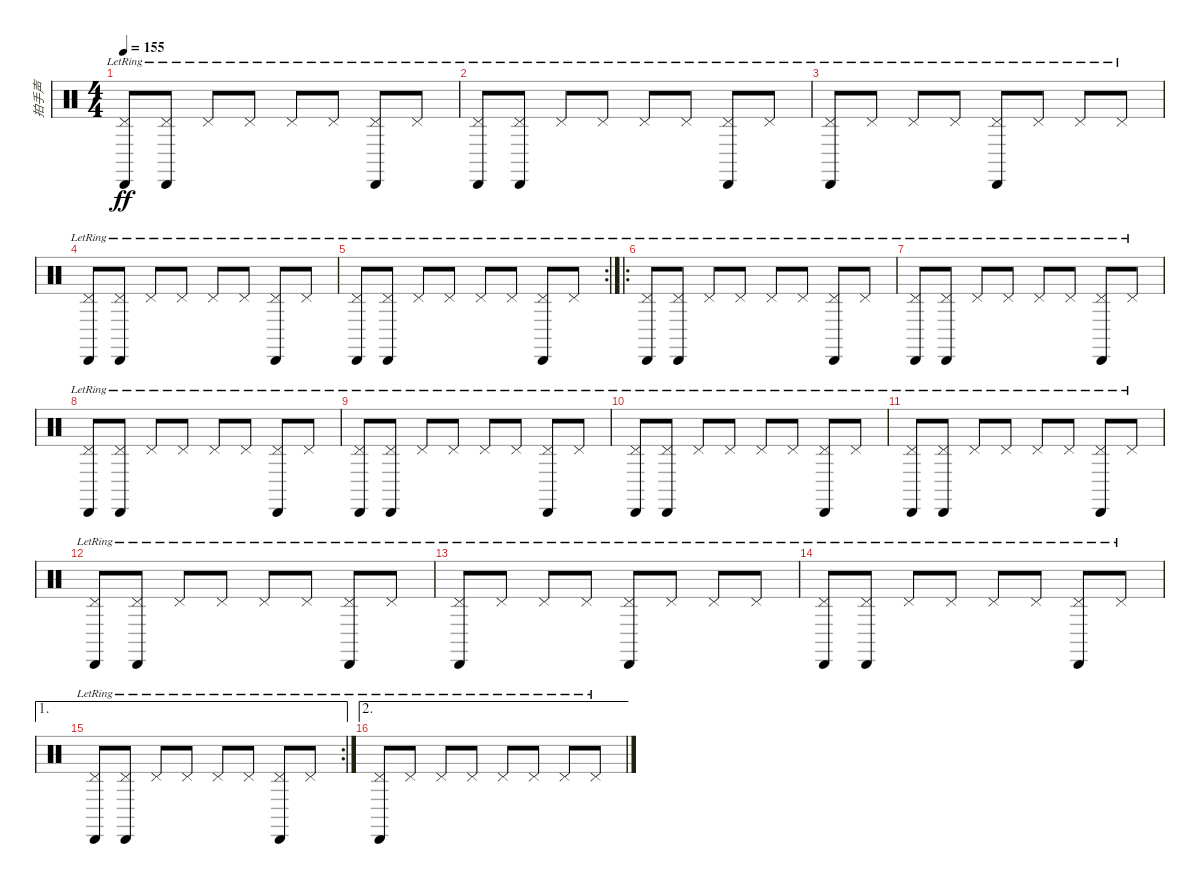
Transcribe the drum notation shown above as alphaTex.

\track ("拍手声" "拍手声") {instrument percussion}
\staff {score}
\articulation defaults
\ts (4 4)
\tempo 155
\clef neutral
\ks c
("Pedal Hi-Hat (hit)"{lr} "Cabasa (hit)"{lr}).8{dy ff} ("Pedal Hi-Hat (hit)"{lr} "Cabasa (hit)"{lr}).8 "Pedal Hi-Hat (hit)"{lr}.8 "Pedal Hi-Hat (hit)"{lr}.8 "Pedal Hi-Hat (hit)"{lr}.8 "Pedal Hi-Hat (hit)"{lr}.8 ("Pedal Hi-Hat (hit)"{lr} "Cabasa (hit)"{lr}).8 "Pedal Hi-Hat (hit)"{lr}.8 |
("Pedal Hi-Hat (hit)"{lr} "Cabasa (hit)"{lr}).8 ("Pedal Hi-Hat (hit)"{lr} "Cabasa (hit)"{lr}).8 "Pedal Hi-Hat (hit)"{lr}.8 "Pedal Hi-Hat (hit)"{lr}.8 "Pedal Hi-Hat (hit)"{lr}.8 "Pedal Hi-Hat (hit)"{lr}.8 ("Pedal Hi-Hat (hit)"{lr} "Cabasa (hit)"{lr}).8 "Pedal Hi-Hat (hit)"{lr}.8 |
("Pedal Hi-Hat (hit)"{lr} "Cabasa (hit)"{lr}).8 "Pedal Hi-Hat (hit)"{lr}.8 "Pedal Hi-Hat (hit)"{lr}.8 "Pedal Hi-Hat (hit)"{lr}.8 ("Pedal Hi-Hat (hit)"{lr} "Cabasa (hit)"{lr}).8 "Pedal Hi-Hat (hit)"{lr}.8 "Pedal Hi-Hat (hit)"{lr}.8 "Pedal Hi-Hat (hit)"{lr}.8 |
("Pedal Hi-Hat (hit)"{lr} "Cabasa (hit)"{lr}).8 ("Pedal Hi-Hat (hit)"{lr} "Cabasa (hit)"{lr}).8 "Pedal Hi-Hat (hit)"{lr}.8 "Pedal Hi-Hat (hit)"{lr}.8 "Pedal Hi-Hat (hit)"{lr}.8 "Pedal Hi-Hat (hit)"{lr}.8 ("Pedal Hi-Hat (hit)"{lr} "Cabasa (hit)"{lr}).8 "Pedal Hi-Hat (hit)"{lr}.8 |
\rc 2
("Pedal Hi-Hat (hit)"{lr} "Cabasa (hit)"{lr}).8 ("Pedal Hi-Hat (hit)"{lr} "Cabasa (hit)"{lr}).8 "Pedal Hi-Hat (hit)"{lr}.8 "Pedal Hi-Hat (hit)"{lr}.8 "Pedal Hi-Hat (hit)"{lr}.8 "Pedal Hi-Hat (hit)"{lr}.8 ("Pedal Hi-Hat (hit)"{lr} "Cabasa (hit)"{lr}).8 "Pedal Hi-Hat (hit)"{lr}.8 |
\ro
("Pedal Hi-Hat (hit)"{lr} "Cabasa (hit)"{lr}).8 ("Pedal Hi-Hat (hit)"{lr} "Cabasa (hit)"{lr}).8 "Pedal Hi-Hat (hit)"{lr}.8 "Pedal Hi-Hat (hit)"{lr}.8 "Pedal Hi-Hat (hit)"{lr}.8 "Pedal Hi-Hat (hit)"{lr}.8 ("Pedal Hi-Hat (hit)"{lr} "Cabasa (hit)"{lr}).8 "Pedal Hi-Hat (hit)"{lr}.8 |
("Pedal Hi-Hat (hit)"{lr} "Cabasa (hit)"{lr}).8 ("Pedal Hi-Hat (hit)"{lr} "Cabasa (hit)"{lr}).8 "Pedal Hi-Hat (hit)"{lr}.8 "Pedal Hi-Hat (hit)"{lr}.8 "Pedal Hi-Hat (hit)"{lr}.8 "Pedal Hi-Hat (hit)"{lr}.8 ("Pedal Hi-Hat (hit)"{lr} "Cabasa (hit)"{lr}).8 "Pedal Hi-Hat (hit)"{lr}.8 |
("Pedal Hi-Hat (hit)"{lr} "Cabasa (hit)"{lr}).8 ("Pedal Hi-Hat (hit)"{lr} "Cabasa (hit)"{lr}).8 "Pedal Hi-Hat (hit)"{lr}.8 "Pedal Hi-Hat (hit)"{lr}.8 "Pedal Hi-Hat (hit)"{lr}.8 "Pedal Hi-Hat (hit)"{lr}.8 ("Pedal Hi-Hat (hit)"{lr} "Cabasa (hit)"{lr}).8 "Pedal Hi-Hat (hit)"{lr}.8 |
("Pedal Hi-Hat (hit)"{lr} "Cabasa (hit)"{lr}).8 ("Pedal Hi-Hat (hit)"{lr} "Cabasa (hit)"{lr}).8 "Pedal Hi-Hat (hit)"{lr}.8 "Pedal Hi-Hat (hit)"{lr}.8 "Pedal Hi-Hat (hit)"{lr}.8 "Pedal Hi-Hat (hit)"{lr}.8 ("Pedal Hi-Hat (hit)"{lr} "Cabasa (hit)"{lr}).8 "Pedal Hi-Hat (hit)"{lr}.8 |
("Pedal Hi-Hat (hit)"{lr} "Cabasa (hit)"{lr}).8 ("Pedal Hi-Hat (hit)"{lr} "Cabasa (hit)"{lr}).8 "Pedal Hi-Hat (hit)"{lr}.8 "Pedal Hi-Hat (hit)"{lr}.8 "Pedal Hi-Hat (hit)"{lr}.8 "Pedal Hi-Hat (hit)"{lr}.8 ("Pedal Hi-Hat (hit)"{lr} "Cabasa (hit)"{lr}).8 "Pedal Hi-Hat (hit)"{lr}.8 |
("Pedal Hi-Hat (hit)"{lr} "Cabasa (hit)"{lr}).8 ("Pedal Hi-Hat (hit)"{lr} "Cabasa (hit)"{lr}).8 "Pedal Hi-Hat (hit)"{lr}.8 "Pedal Hi-Hat (hit)"{lr}.8 "Pedal Hi-Hat (hit)"{lr}.8 "Pedal Hi-Hat (hit)"{lr}.8 ("Pedal Hi-Hat (hit)"{lr} "Cabasa (hit)"{lr}).8 "Pedal Hi-Hat (hit)"{lr}.8 |
("Pedal Hi-Hat (hit)"{lr} "Cabasa (hit)"{lr}).8 ("Pedal Hi-Hat (hit)"{lr} "Cabasa (hit)"{lr}).8 "Pedal Hi-Hat (hit)"{lr}.8 "Pedal Hi-Hat (hit)"{lr}.8 "Pedal Hi-Hat (hit)"{lr}.8 "Pedal Hi-Hat (hit)"{lr}.8 ("Pedal Hi-Hat (hit)"{lr} "Cabasa (hit)"{lr}).8 "Pedal Hi-Hat (hit)"{lr}.8 |
("Pedal Hi-Hat (hit)"{lr} "Cabasa (hit)"{lr}).8 "Pedal Hi-Hat (hit)"{lr}.8 "Pedal Hi-Hat (hit)"{lr}.8 "Pedal Hi-Hat (hit)"{lr}.8 ("Pedal Hi-Hat (hit)"{lr} "Cabasa (hit)"{lr}).8 "Pedal Hi-Hat (hit)"{lr}.8 "Pedal Hi-Hat (hit)"{lr}.8 "Pedal Hi-Hat (hit)"{lr}.8 |
("Pedal Hi-Hat (hit)"{lr} "Cabasa (hit)"{lr}).8 ("Pedal Hi-Hat (hit)"{lr} "Cabasa (hit)"{lr}).8 "Pedal Hi-Hat (hit)"{lr}.8 "Pedal Hi-Hat (hit)"{lr}.8 "Pedal Hi-Hat (hit)"{lr}.8 "Pedal Hi-Hat (hit)"{lr}.8 ("Pedal Hi-Hat (hit)"{lr} "Cabasa (hit)"{lr}).8 "Pedal Hi-Hat (hit)"{lr}.8 |
\ae 1
\rc 2
("Pedal Hi-Hat (hit)"{lr} "Cabasa (hit)"{lr}).8 ("Pedal Hi-Hat (hit)"{lr} "Cabasa (hit)"{lr}).8 "Pedal Hi-Hat (hit)"{lr}.8 "Pedal Hi-Hat (hit)"{lr}.8 "Pedal Hi-Hat (hit)"{lr}.8 "Pedal Hi-Hat (hit)"{lr}.8 ("Pedal Hi-Hat (hit)"{lr} "Cabasa (hit)"{lr}).8 "Pedal Hi-Hat (hit)"{lr}.8 |
\ae 2
("Pedal Hi-Hat (hit)"{lr} "Cabasa (hit)"{lr}).8 "Pedal Hi-Hat (hit)"{lr}.8 "Pedal Hi-Hat (hit)"{lr}.8 "Pedal Hi-Hat (hit)"{lr}.8 "Pedal Hi-Hat (hit)"{lr}.8 "Pedal Hi-Hat (hit)"{lr}.8 "Pedal Hi-Hat (hit)"{lr}.8 "Pedal Hi-Hat (hit)"{lr}.8
